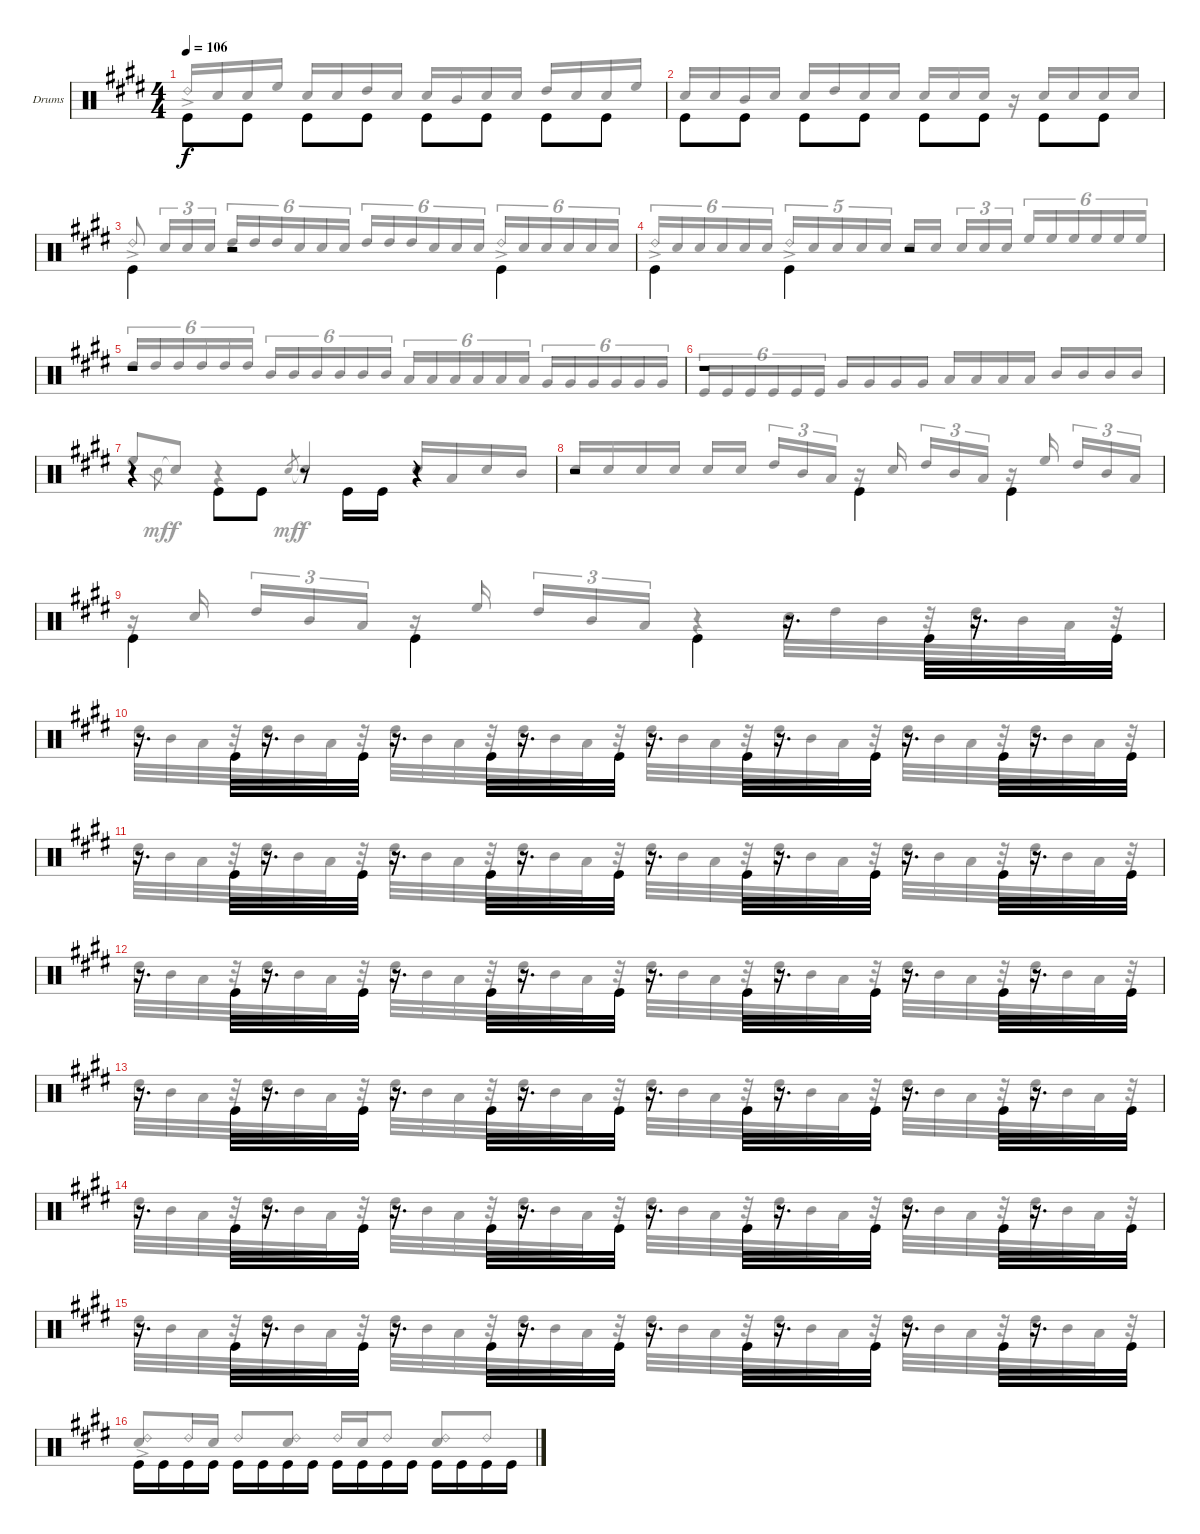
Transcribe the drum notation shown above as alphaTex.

\bracketExtendMode groupsimilarinstruments
\firstSystemTrackNameOrientation horizontal
\otherSystemsTrackNameOrientation horizontal
\track ("Drums" "Drums") {instrument percussion}
\staff {score}
\articulation defaults
\voice
\ts (4 4)
\tempo 106
\clef neutral
\scale
1.02648
\ks e "Kick (hit)".8{dy f beam invert} "Kick (hit)".8 "Kick (hit)".8{beam invert} "Kick (hit)".8 "Kick (hit)".8{beam invert} "Kick (hit)".8 "Kick (hit)".8{beam invert} "Kick (hit)".8
|
\scale
0.973518 "Kick (hit)".8{beam invert} "Kick (hit)".8 "Kick (hit)".8{beam invert} "Kick (hit)".8 "Kick (hit)".8{beam invert} "Kick (hit)".8 "Kick (hit)".8{beam invert} "Kick (hit)".8 |
\scale
1.02648 "Kick (hit)".4{beam invert} r.2 "Kick (hit)".4{beam invert} |
\scale
0.973518 "Kick (hit)".4{beam invert} "Kick (hit)".4{beam invert} r.2 |
\scale
1.02648 r.1 |
\scale
0.973518 r.1 |
\scale
1.02648 r.4 "Kick (hit)".8{beam invert} "Kick (hit)".8 r.8 "Kick (hit)".16{beam invert} "Kick (hit)".16 r.4 |
\scale
0.973518 r.2 "Kick (hit)".4{beam invert} "Kick (hit)".4{beam invert} |
\scale
1.02648 "Kick (hit)".4{beam invert} "Kick (hit)".4{beam invert} "Kick (hit)".4{beam invert} r.16{d} "Kick (hit)".32{beam invert} r.16{d} "Kick (hit)".32 |
\scale
0.973518 r.16{d beam invert} "Kick (hit)".32{beam invert} r.16{d} "Kick (hit)".32 r.16{d beam invert} "Kick (hit)".32{beam invert} r.16{d} "Kick (hit)".32 r.16{d beam invert} "Kick (hit)".32{beam invert} r.16{d} "Kick (hit)".32 r.16{d beam invert} "Kick (hit)".32{beam invert} r.16{d} "Kick (hit)".32 |
\scale
1.02648 r.16{d beam invert} "Kick (hit)".32{beam invert} r.16{d} "Kick (hit)".32 r.16{d beam invert} "Kick (hit)".32{beam invert} r.16{d} "Kick (hit)".32 r.16{d beam invert} "Kick (hit)".32{beam invert} r.16{d} "Kick (hit)".32 r.16{d beam invert} "Kick (hit)".32{beam invert} r.16{d} "Kick (hit)".32 |
\scale
0.973518 r.16{d beam invert} "Kick (hit)".32{beam invert} r.16{d} "Kick (hit)".32 r.16{d beam invert} "Kick (hit)".32{beam invert} r.16{d} "Kick (hit)".32 r.16{d beam invert} "Kick (hit)".32{beam invert} r.16{d} "Kick (hit)".32 r.16{d beam invert} "Kick (hit)".32{beam invert} r.16{d} "Kick (hit)".32 |
\scale
1.02648 r.16{d beam invert} "Kick (hit)".32{beam invert} r.16{d} "Kick (hit)".32 r.16{d beam invert} "Kick (hit)".32{beam invert} r.16{d} "Kick (hit)".32 r.16{d beam invert} "Kick (hit)".32{beam invert} r.16{d} "Kick (hit)".32 r.16{d beam invert} "Kick (hit)".32{beam invert} r.16{d} "Kick (hit)".32 |
\scale
0.973518 r.16{d beam invert} "Kick (hit)".32{beam invert} r.16{d} "Kick (hit)".32 r.16{d beam invert} "Kick (hit)".32{beam invert} r.16{d} "Kick (hit)".32 r.16{d beam invert} "Kick (hit)".32{beam invert} r.16{d} "Kick (hit)".32 r.16{d beam invert} "Kick (hit)".32{beam invert} r.16{d} "Kick (hit)".32 |
\scale
1.02648 r.16{d beam invert} "Kick (hit)".32{beam invert} r.16{d} "Kick (hit)".32 r.16{d beam invert} "Kick (hit)".32{beam invert} r.16{d} "Kick (hit)".32 r.16{d beam invert} "Kick (hit)".32{beam invert} r.16{d} "Kick (hit)".32 r.16{d beam invert} "Kick (hit)".32{beam invert} r.16{d} "Kick (hit)".32 |
\scale
0.973518 "Kick (hit)".16{beam invert} "Kick (hit)".16 "Kick (hit)".16 "Kick (hit)".16 "Kick (hit)".16{beam invert} "Kick (hit)".16 "Kick (hit)".16 "Kick (hit)".16 "Kick (hit)".16{beam invert} "Kick (hit)".16 "Kick (hit)".16 "Kick (hit)".16 "Kick (hit)".16{beam invert} "Kick (hit)".16 "Kick (hit)".16 "Kick (hit)".16
\voice
\clef neutral
\ottava regular
\simile none
\scale
1.02648
\ks e "Ride (bell) 2"{ac}.16{dy f beam invert} "Snare (hit) 2".16 "Snare (hit) 2".16 "High Floor Tom (hit)".16 "Snare (hit) 2".16{beam invert} "Snare (hit) 2".16 "High Tom (hit)".16 "Snare (hit) 2".16 "Snare (hit) 2".16{beam invert} "Mid Tom (hit)".16 "Snare (hit) 2".16 "Snare (hit) 2".16 "High Tom (hit)".16{beam invert} "Snare (hit) 2".16 "Snare (hit) 2".16 "High Floor Tom (hit)".16
|
\scale
0.973518 "Snare (hit) 2".16{beam invert} "Snare (hit) 2".16 "Mid Tom (hit)".16 "Snare (hit) 2".16 "Snare (hit) 2".16{beam invert} "High Tom (hit)".16 "Snare (hit) 2".16 "Snare (hit) 2".16 "Snare (hit) 2".16{beam invert} "Snare (hit) 2".16 "Snare (hit) 2".16 r.16{beam invert} "Snare (hit) 2".16{beam invert} "Snare (hit) 2".16 "Snare (hit) 2".16 "Snare (hit) 2".16 |
\scale
1.02648 "Ride (bell) 2"{ac}.8{beam invert} "Snare (hit) 2".16{tu (3 2) beam invert} "Snare (hit) 2".16{tu (3 2)} "Snare (hit) 2".16{tu (3 2)} "High Tom (hit)".16{tu (6 4) beam invert} "High Tom (hit)".16{tu (6 4)} "High Tom (hit)".16{tu (6 4)} "Snare (hit) 2".16{tu (6 4)} "Snare (hit) 2".16{tu (6 4)} "Snare (hit) 2".16{tu (6 4)} "High Tom (hit)".16{tu (6 4) beam invert} "High Tom (hit)".16{tu (6 4)} "High Tom (hit)".16{tu (6 4)} "Snare (hit) 2".16{tu (6 4)} "Snare (hit) 2".16{tu (6 4)} "Snare (hit) 2".16{tu (6 4)} "Ride (bell) 2"{ac}.16{tu (6 4) beam invert} "Snare (hit) 2".16{tu (6 4)} "Snare (hit) 2".16{tu (6 4)} "Snare (hit) 2".16{tu (6 4)} "Snare (hit) 2".16{tu (6 4)} "Snare (hit) 2".16{tu (6 4)} |
\scale
0.973518 "Ride (bell) 2"{ac}.16{tu (6 4) beam invert} "Snare (hit) 2".16{tu (6 4)} "Snare (hit) 2".16{tu (6 4)} "Snare (hit) 2".16{tu (6 4)} "Snare (hit) 2".16{tu (6 4)} "Snare (hit) 2".16{tu (6 4)} "Ride (bell) 2"{ac}.16{tu (5 4) beam invert} "Snare (hit) 2".16{tu (5 4)} "Snare (hit) 2".16{tu (5 4)} "Snare (hit) 2".16{tu (5 4)} "Snare (hit) 2".16{tu (5 4)} "Snare (hit) 2".16{beam invert} "Snare (hit) 2".16 "Snare (hit) 2".16{tu (3 2) beam invert} "Snare (hit) 2".16{tu (3 2)} "Snare (hit) 2".16{tu (3 2)} "High Floor Tom (hit)".16{tu (6 4) beam invert} "High Floor Tom (hit)".16{tu (6 4)} "High Floor Tom (hit)".16{tu (6 4)} "High Floor Tom (hit)".16{tu (6 4)} "High Floor Tom (hit)".16{tu (6 4)} "High Floor Tom (hit)".16{tu (6 4)} |
\scale
1.02648 "High Tom (hit)".16{tu (6 4) beam invert} "High Tom (hit)".16{tu (6 4)} "High Tom (hit)".16{tu (6 4)} "High Tom (hit)".16{tu (6 4)} "High Tom (hit)".16{tu (6 4)} "High Tom (hit)".16{tu (6 4)} "Mid Tom (hit)".16{tu (6 4) beam invert} "Mid Tom (hit)".16{tu (6 4)} "Mid Tom (hit)".16{tu (6 4)} "Mid Tom (hit)".16{tu (6 4)} "Mid Tom (hit)".16{tu (6 4)} "Mid Tom (hit)".16{tu (6 4)} "Low Tom (hit)".16{tu (6 4) beam invert} "Low Tom (hit)".16{tu (6 4)} "Low Tom (hit)".16{tu (6 4)} "Low Tom (hit)".16{tu (6 4)} "Low Tom (hit)".16{tu (6 4)} "Low Tom (hit)".16{tu (6 4)} "Very Low Tom (hit)".16{tu (6 4) beam invert} "Very Low Tom (hit)".16{tu (6 4)} "Very Low Tom (hit)".16{tu (6 4)} "Very Low Tom (hit)".16{tu (6 4)} "Very Low Tom (hit)".16{tu (6 4)} "Very Low Tom (hit)".16{tu (6 4)} |
\scale
0.973518 "Kick (hit)".16{tu (6 4) beam invert} "Kick (hit)".16{tu (6 4)} "Kick (hit)".16{tu (6 4)} "Kick (hit)".16{tu (6 4)} "Kick (hit)".16{tu (6 4)} "Kick (hit)".16{tu (6 4)} "Very Low Tom (hit)".16{beam invert} "Very Low Tom (hit)".16 "Very Low Tom (hit)".16 "Very Low Tom (hit)".16 "Low Tom (hit)".16{beam invert} "Low Tom (hit)".16 "Low Tom (hit)".16 "Low Tom (hit)".16 "Mid Tom (hit)".16{beam invert} "Mid Tom (hit)".16 "Mid Tom (hit)".16 "Mid Tom (hit)".16 |
\scale
1.02648 "High Floor Tom (hit)".8{beam invert} "Snare (hit) 2".8{gr dy mf} "Snare (hit) 2"{t}.8{dy f} r.4{beam invert} "Snare (hit) 2".8{gr dy mf beam invert} "Snare (hit) 2"{t}.4{dy f beam invert} "Snare (hit) 2".16{beam invert} "Low Tom (hit)".16 "Snare (hit) 2".16 "Mid Tom (hit)".16 |
\scale
0.973518 "Snare (hit) 2".16{beam invert} "Snare (hit) 2".16 "Snare (hit) 2".16 "Snare (hit) 2".16 "Snare (hit) 2".16{beam invert} "Snare (hit) 2".16 "High Tom (hit)".16{tu (3 2) beam invert} "Mid Tom (hit)".16{tu (3 2)} "Low Tom (hit)".16{tu (3 2)} r.16{beam invert} "Snare (hit) 2".16{beam invert} "High Tom (hit)".16{tu (3 2) beam invert} "Mid Tom (hit)".16{tu (3 2)} "Low Tom (hit)".16{tu (3 2)} r.16{beam invert} "High Floor Tom (hit)".16{beam invert} "High Tom (hit)".16{tu (3 2) beam invert} "Mid Tom (hit)".16{tu (3 2)} "Low Tom (hit)".16{tu (3 2)} |
\scale
1.02648 r.16{beam invert} "Snare (hit) 2".16{beam invert} "High Tom (hit)".16{tu (3 2) beam invert} "Mid Tom (hit)".16{tu (3 2)} "Low Tom (hit)".16{tu (3 2)} r.16{beam invert} "High Floor Tom (hit)".16{beam invert} "High Tom (hit)".16{tu (3 2) beam invert} "Mid Tom (hit)".16{tu (3 2)} "Low Tom (hit)".16{tu (3 2)} r.4{beam invert} "Snare (hit) 2".32 "High Tom (hit)".32 "Mid Tom (hit)".32 r.32 "High Tom (hit)".32 "Mid Tom (hit)".32 "Low Tom (hit)".32 r.32 |
\scale
0.973518 "High Tom (hit)".32 "Mid Tom (hit)".32 "Low Tom (hit)".32 r.32 "High Tom (hit)".32 "Mid Tom (hit)".32 "Low Tom (hit)".32 r.32 "High Tom (hit)".32 "Mid Tom (hit)".32 "Low Tom (hit)".32 r.32 "High Tom (hit)".32 "Mid Tom (hit)".32 "Low Tom (hit)".32 r.32 "High Tom (hit)".32 "Mid Tom (hit)".32 "Low Tom (hit)".32 r.32 "High Tom (hit)".32 "Mid Tom (hit)".32 "Low Tom (hit)".32 r.32 "High Tom (hit)".32 "Mid Tom (hit)".32 "Low Tom (hit)".32 r.32 "High Tom (hit)".32 "Mid Tom (hit)".32 "Low Tom (hit)".32 r.32 |
\scale
1.02648 "High Tom (hit)".32 "Mid Tom (hit)".32 "Low Tom (hit)".32 r.32 "High Tom (hit)".32 "Mid Tom (hit)".32 "Low Tom (hit)".32 r.32 "High Tom (hit)".32 "Mid Tom (hit)".32 "Low Tom (hit)".32 r.32 "High Tom (hit)".32 "Mid Tom (hit)".32 "Low Tom (hit)".32 r.32 "High Tom (hit)".32 "Mid Tom (hit)".32 "Low Tom (hit)".32 r.32 "High Tom (hit)".32 "Mid Tom (hit)".32 "Low Tom (hit)".32 r.32 "High Tom (hit)".32 "Mid Tom (hit)".32 "Low Tom (hit)".32 r.32 "High Tom (hit)".32 "Mid Tom (hit)".32 "Low Tom (hit)".32 r.32 |
\scale
0.973518 "High Tom (hit)".32 "Mid Tom (hit)".32 "Low Tom (hit)".32 r.32 "High Tom (hit)".32 "Mid Tom (hit)".32 "Low Tom (hit)".32 r.32 "High Tom (hit)".32 "Mid Tom (hit)".32 "Low Tom (hit)".32 r.32 "High Tom (hit)".32 "Mid Tom (hit)".32 "Low Tom (hit)".32 r.32 "High Tom (hit)".32 "Mid Tom (hit)".32 "Low Tom (hit)".32 r.32 "High Tom (hit)".32 "Mid Tom (hit)".32 "Low Tom (hit)".32 r.32 "High Tom (hit)".32 "Mid Tom (hit)".32 "Low Tom (hit)".32 r.32 "High Tom (hit)".32 "Mid Tom (hit)".32 "Low Tom (hit)".32 r.32 |
\scale
1.02648 "High Tom (hit)".32 "Mid Tom (hit)".32 "Low Tom (hit)".32 r.32 "High Tom (hit)".32 "Mid Tom (hit)".32 "Low Tom (hit)".32 r.32 "High Tom (hit)".32 "Mid Tom (hit)".32 "Low Tom (hit)".32 r.32 "High Tom (hit)".32 "Mid Tom (hit)".32 "Low Tom (hit)".32 r.32 "High Tom (hit)".32 "Mid Tom (hit)".32 "Low Tom (hit)".32 r.32 "High Tom (hit)".32 "Mid Tom (hit)".32 "Low Tom (hit)".32 r.32 "High Tom (hit)".32 "Mid Tom (hit)".32 "Low Tom (hit)".32 r.32 "High Tom (hit)".32 "Mid Tom (hit)".32 "Low Tom (hit)".32 r.32 |
\scale
0.973518 "High Tom (hit)".32 "Mid Tom (hit)".32 "Low Tom (hit)".32 r.32 "High Tom (hit)".32 "Mid Tom (hit)".32 "Low Tom (hit)".32 r.32 "High Tom (hit)".32 "Mid Tom (hit)".32 "Low Tom (hit)".32 r.32 "High Tom (hit)".32 "Mid Tom (hit)".32 "Low Tom (hit)".32 r.32 "High Tom (hit)".32 "Mid Tom (hit)".32 "Low Tom (hit)".32 r.32 "High Tom (hit)".32 "Mid Tom (hit)".32 "Low Tom (hit)".32 r.32 "High Tom (hit)".32 "Mid Tom (hit)".32 "Low Tom (hit)".32 r.32 "High Tom (hit)".32 "Mid Tom (hit)".32 "Low Tom (hit)".32 r.32 |
\scale
1.02648 "High Tom (hit)".32 "Mid Tom (hit)".32 "Low Tom (hit)".32 r.32 "High Tom (hit)".32 "Mid Tom (hit)".32 "Low Tom (hit)".32 r.32 "High Tom (hit)".32 "Mid Tom (hit)".32 "Low Tom (hit)".32 r.32 "High Tom (hit)".32 "Mid Tom (hit)".32 "Low Tom (hit)".32 r.32 "High Tom (hit)".32 "Mid Tom (hit)".32 "Low Tom (hit)".32 r.32 "High Tom (hit)".32 "Mid Tom (hit)".32 "Low Tom (hit)".32 r.32 "High Tom (hit)".32 "Mid Tom (hit)".32 "Low Tom (hit)".32 r.32 "High Tom (hit)".32 "Mid Tom (hit)".32 "Low Tom (hit)".32 r.32 |
\scale
0.973518 ("Snare (hit) 2" "Ride (bell) 2"{ac}).8{beam invert} "Ride (bell) 2".16 "Snare (hit) 2".16 "Ride (bell) 2".8{beam invert} ("Ride (bell) 2" "Snare (hit) 2").8 "Ride (bell) 2".16{beam invert} "Snare (hit) 2".16 "Ride (bell) 2".8 ("Ride (bell) 2" "Snare (hit) 2").8{beam invert} "Ride (bell) 2".8
